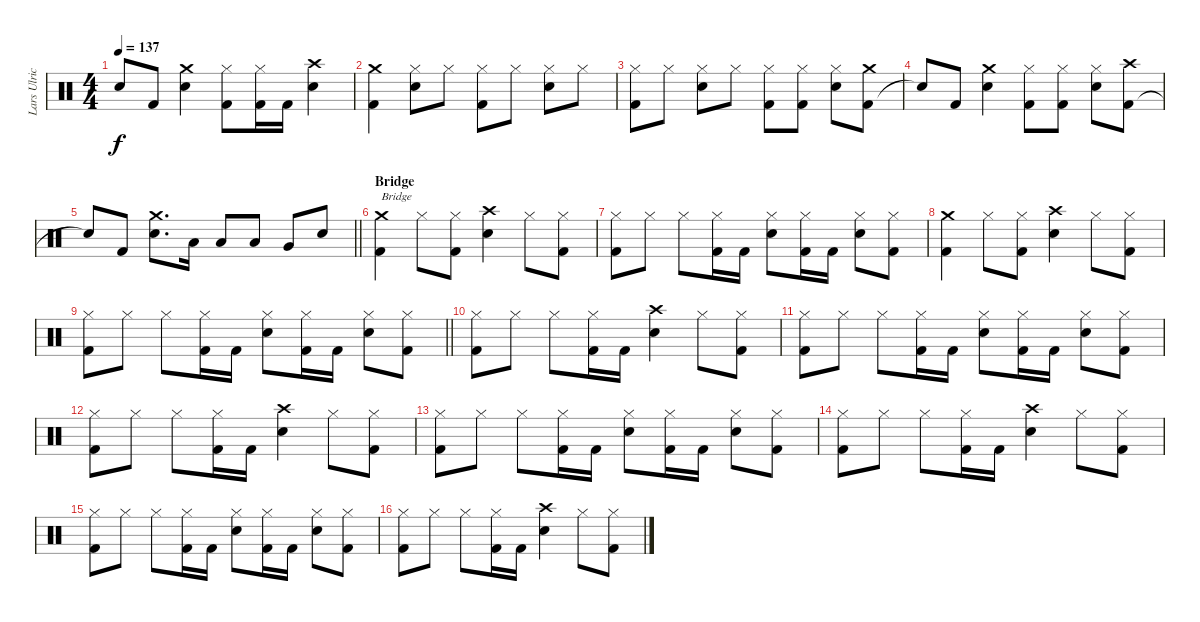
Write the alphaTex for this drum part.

\track ("Lars Ulrich" "Lars Ulric") {instrument percussion}
\staff {score}
\articulation defaults
\ts (4 4)
\tempo 137
\clef neutral
\ks c "Snare (hit)"{t}.8{dy f} "Kick (hit) 2".8
("Snare (hit) 2" "Crash medium (hit)").4 ("Kick (hit) 2" "Hi-Hat (closed)").8 ("Kick (hit) 2" "Hi-Hat (closed)").16 "Kick (hit) 2".16 ("Snare (hit) 2" "Crash high (hit)").4 |
("Kick (hit) 2" "Crash medium (hit)").4 ("Snare (hit) 2" "Hi-Hat (closed)").8 "Hi-Hat (closed)".8 ("Kick (hit) 2" "Hi-Hat (closed)").8 "Hi-Hat (closed)".8 ("Snare (hit) 2" "Hi-Hat (closed)").8 "Hi-Hat (closed)".8 |
("Kick (hit) 2" "Hi-Hat (closed)").8 "Hi-Hat (closed)".8 ("Snare (hit) 2" "Hi-Hat (closed)").8 "Hi-Hat (closed)".8 ("Kick (hit) 2" "Hi-Hat (closed)").8 ("Kick (hit) 2" "Hi-Hat (closed)").8 ("Snare (hit) 2" "Hi-Hat (closed)").8 ("Kick (hit) 2" "Crash medium (hit)").8 |
"Snare (hit)"{t}.8 "Kick (hit) 2".8 ("Snare (hit) 2" "Crash medium (hit)").4 ("Kick (hit) 2" "Hi-Hat (closed)").8 ("Kick (hit) 2" "Hi-Hat (closed)").8 ("Snare (hit) 2" "Hi-Hat (closed)").8 ("Kick (hit) 2" "Crash high (hit)").8 |
\barLineRight lightlight "Snare (hit)"{t}.8 "Kick (hit) 2".8
("Snare (hit) 2" "Crash medium (hit)").8{d} "Low Tom (hit)".16 "Low Tom (hit)".8 "Low Tom (hit)".8 "Very Low Tom (hit)".8 "Snare (hit) 2".8 |
\section ("" "Bridge")
("Kick (hit) 2" "Crash medium (hit)").4{txt "Bridge"} "Hi-Hat (closed)".8 ("Kick (hit) 2" "Hi-Hat (closed)").8 ("Snare (hit) 2" "Crash high (hit)").4 "Hi-Hat (closed)".8 ("Kick (hit) 2" "Hi-Hat (closed)").8 |
("Kick (hit) 2" "Hi-Hat (closed)").8 "Hi-Hat (closed)".8 "Hi-Hat (closed)".8 ("Kick (hit) 2" "Hi-Hat (closed)").16 "Kick (hit) 2".16 ("Snare (hit) 2" "Hi-Hat (closed)").8 ("Kick (hit) 2" "Hi-Hat (closed)").16 "Kick (hit) 2".16 ("Snare (hit) 2" "Hi-Hat (closed)").8 ("Kick (hit) 2" "Hi-Hat (closed)").8 |
("Kick (hit) 2" "Crash medium (hit)").4 "Hi-Hat (closed)".8 ("Kick (hit) 2" "Hi-Hat (closed)").8 ("Snare (hit) 2" "Crash high (hit)").4 "Hi-Hat (closed)".8 ("Kick (hit) 2" "Hi-Hat (closed)").8 |
\barLineRight lightlight
("Kick (hit) 2" "Hi-Hat (closed)").8 "Hi-Hat (closed)".8 "Hi-Hat (closed)".8 ("Kick (hit) 2" "Hi-Hat (closed)").16 "Kick (hit) 2".16 ("Snare (hit) 2" "Hi-Hat (closed)").8 ("Kick (hit) 2" "Hi-Hat (closed)").16 "Kick (hit) 2".16 ("Snare (hit) 2" "Hi-Hat (closed)").8 ("Kick (hit) 2" "Hi-Hat (closed)").8 |
("Kick (hit) 2" "Hi-Hat (closed)").8 "Hi-Hat (closed)".8 "Hi-Hat (closed)".8 ("Kick (hit) 2" "Hi-Hat (closed)").16 "Kick (hit) 2".16 ("Snare (hit) 2" "Crash high (hit)").4 "Hi-Hat (closed)".8 ("Kick (hit) 2" "Hi-Hat (closed)").8 |
("Kick (hit) 2" "Hi-Hat (closed)").8 "Hi-Hat (closed)".8 "Hi-Hat (closed)".8 ("Kick (hit) 2" "Hi-Hat (closed)").16 "Kick (hit) 2".16 ("Snare (hit) 2" "Hi-Hat (closed)").8 ("Kick (hit) 2" "Hi-Hat (closed)").16 "Kick (hit) 2".16 ("Snare (hit) 2" "Hi-Hat (closed)").8 ("Kick (hit) 2" "Hi-Hat (closed)").8 |
("Kick (hit) 2" "Hi-Hat (closed)").8 "Hi-Hat (closed)".8 "Hi-Hat (closed)".8 ("Kick (hit) 2" "Hi-Hat (closed)").16 "Kick (hit) 2".16 ("Snare (hit) 2" "Crash high (hit)").4 "Hi-Hat (closed)".8 ("Kick (hit) 2" "Hi-Hat (closed)").8 |
("Kick (hit) 2" "Hi-Hat (closed)").8 "Hi-Hat (closed)".8 "Hi-Hat (closed)".8 ("Kick (hit) 2" "Hi-Hat (closed)").16 "Kick (hit) 2".16 ("Snare (hit) 2" "Hi-Hat (closed)").8 ("Kick (hit) 2" "Hi-Hat (closed)").16 "Kick (hit) 2".16 ("Snare (hit) 2" "Hi-Hat (closed)").8 ("Kick (hit) 2" "Hi-Hat (closed)").8 |
("Kick (hit) 2" "Hi-Hat (closed)").8 "Hi-Hat (closed)".8 "Hi-Hat (closed)".8 ("Kick (hit) 2" "Hi-Hat (closed)").16 "Kick (hit) 2".16 ("Snare (hit) 2" "Crash high (hit)").4 "Hi-Hat (closed)".8 ("Kick (hit) 2" "Hi-Hat (closed)").8 |
("Kick (hit) 2" "Hi-Hat (closed)").8 "Hi-Hat (closed)".8 "Hi-Hat (closed)".8 ("Kick (hit) 2" "Hi-Hat (closed)").16 "Kick (hit) 2".16 ("Snare (hit) 2" "Hi-Hat (closed)").8 ("Kick (hit) 2" "Hi-Hat (closed)").16 "Kick (hit) 2".16 ("Snare (hit) 2" "Hi-Hat (closed)").8 ("Kick (hit) 2" "Hi-Hat (closed)").8 |
("Kick (hit) 2" "Hi-Hat (closed)").8 "Hi-Hat (closed)".8 "Hi-Hat (closed)".8 ("Kick (hit) 2" "Hi-Hat (closed)").16 "Kick (hit) 2".16 ("Snare (hit) 2" "Crash high (hit)").4 "Hi-Hat (closed)".8 ("Kick (hit) 2" "Hi-Hat (closed)").8
